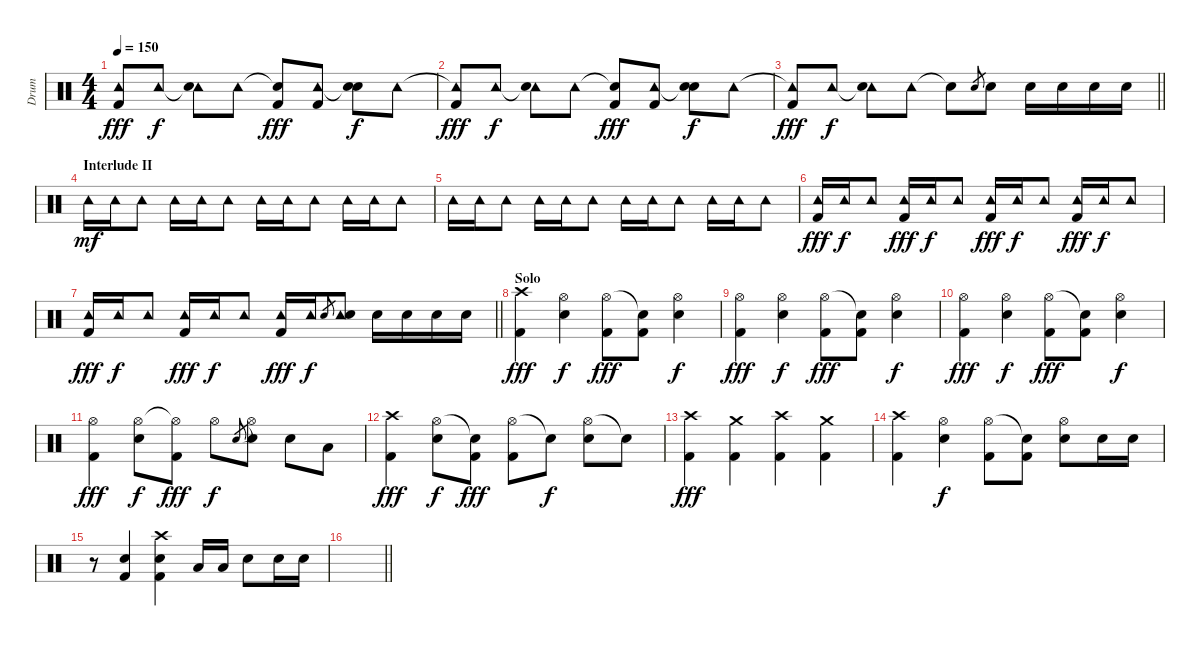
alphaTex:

\track ("Drum" "Drum") {instrument percussion}
\staff {score}
\articulation defaults
\ts (4 4)
\tempo 150
\clef neutral
\ks c
("Tambourine (hit)"{t} "Kick (hit) 2").8{dy fff} "Tambourine (hit)".8{dy f} ("Tambourine (hit)"{t} "Snare (hit) 2").8 "Tambourine (hit)".8 ("Snare (hit)"{t} "Kick (hit) 2").8{dy fff} ("Tambourine (hit)" "Kick (hit) 2").8 ("Snare (hit)"{t} "Snare (hit) 2").8{dy f} "Tambourine (hit)".8 |
("Tambourine (hit)"{t} "Kick (hit) 2").8{dy fff} "Tambourine (hit)".8{dy f} ("Tambourine (hit)"{t} "Snare (hit) 2").8 "Tambourine (hit)".8 ("Snare (hit)"{t} "Kick (hit) 2").8{dy fff} ("Tambourine (hit)" "Kick (hit) 2").8 ("Snare (hit)"{t} "Snare (hit) 2").8{dy f} "Tambourine (hit)".8 |
\barLineRight lightlight
("Tambourine (hit)"{t} "Kick (hit) 2").8{dy fff} "Tambourine (hit)".8{dy f} ("Tambourine (hit)"{t} "Snare (hit) 2").8 "Tambourine (hit)".8 "Snare (hit)"{t}.8 "Snare (hit) 2".8{gr} "Snare (hit) 2".8 "Snare (hit) 2".16 "Snare (hit) 2".16 "Snare (hit) 2".16 "Snare (hit) 2".16 |
\section ("" "Interlude II")
"Tambourine (hit)".16{dy mf} "Tambourine (hit)".16 "Tambourine (hit)".8 "Tambourine (hit)".16 "Tambourine (hit)".16 "Tambourine (hit)".8 "Tambourine (hit)".16 "Tambourine (hit)".16 "Tambourine (hit)".8 "Tambourine (hit)".16 "Tambourine (hit)".16 "Tambourine (hit)".8 |
"Tambourine (hit)".16 "Tambourine (hit)".16 "Tambourine (hit)".8 "Tambourine (hit)".16 "Tambourine (hit)".16 "Tambourine (hit)".8 "Tambourine (hit)".16 "Tambourine (hit)".16 "Tambourine (hit)".8 "Tambourine (hit)".16 "Tambourine (hit)".16 "Tambourine (hit)".8 |
("Tambourine (hit)" "Kick (hit) 2").16{dy fff} "Tambourine (hit)".16{dy f} "Tambourine (hit)".8 ("Tambourine (hit)" "Kick (hit) 2").16{dy fff} "Tambourine (hit)".16{dy f} "Tambourine (hit)".8 ("Tambourine (hit)" "Kick (hit) 2").16{dy fff} "Tambourine (hit)".16{dy f} "Tambourine (hit)".8 ("Tambourine (hit)" "Kick (hit) 2").16{dy fff} "Tambourine (hit)".16{dy f} "Tambourine (hit)".8 |
\barLineRight lightlight
("Tambourine (hit)" "Kick (hit) 2").16{dy fff} "Tambourine (hit)".16{dy f} "Tambourine (hit)".8 ("Tambourine (hit)" "Kick (hit) 2").16{dy fff} "Tambourine (hit)".16{dy f} "Tambourine (hit)".8 ("Tambourine (hit)" "Kick (hit) 2").16{dy fff} "Tambourine (hit)".16{dy f} "Snare (hit) 2".8{gr} ("Tambourine (hit)" "Snare (hit) 2").8 "Snare (hit) 2".16 "Snare (hit) 2".16 "Snare (hit) 2".16 "Snare (hit) 2".16 |
\section ("" "Solo")
("Crash high (hit)" "Kick (hit) 2").4{dy fff} ("Hi-Hat (open)" "Snare (hit) 2").4{dy f} ("Hi-Hat (open)" "Kick (hit) 2").8{dy fff} ("Snare (hit)"{t} "Kick (hit) 2").8 ("Hi-Hat (open)" "Snare (hit) 2").4{dy f} |
("Hi-Hat (open)" "Kick (hit) 2").4{dy fff} ("Hi-Hat (open)" "Snare (hit) 2").4{dy f} ("Hi-Hat (open)" "Kick (hit) 2").8{dy fff} ("Snare (hit)"{t} "Kick (hit) 2").8 ("Hi-Hat (open)" "Snare (hit) 2").4{dy f} |
("Hi-Hat (open)" "Kick (hit) 2").4{dy fff} ("Hi-Hat (open)" "Snare (hit) 2").4{dy f} ("Hi-Hat (open)" "Kick (hit) 2").8{dy fff} ("Snare (hit)"{t} "Kick (hit) 2").8 ("Hi-Hat (open)" "Snare (hit) 2").4{dy f} |
("Hi-Hat (open)" "Kick (hit) 2").4{dy fff} ("Hi-Hat (open)" "Snare (hit) 2").8{dy f} ("Hi-Hat (open)"{t} "Kick (hit) 2").8{dy fff} "Hi-Hat (open)".8{dy f} "Snare (hit) 2".8{gr} ("Hi-Hat (open)"{t} "Snare (hit) 2").8 "Snare (hit) 2".8 "Low Tom (hit)".8 |
("Crash high (hit)" "Kick (hit) 2").4{dy fff} ("Hi-Hat (open)" "Snare (hit) 2").8{dy f} ("Snare (hit)"{t} "Kick (hit) 2").8{dy fff} ("Hi-Hat (open)" "Kick (hit) 2").8 "Snare (hit)"{t}.8{dy f} ("Hi-Hat (open)" "Snare (hit) 2").8 "Snare (hit)"{t}.8 |
("Crash high (hit)" "Kick (hit) 2").4{dy fff} ("Crash medium (hit)" "Kick (hit) 2").4 ("Crash high (hit)" "Kick (hit) 2").4 ("Crash medium (hit)" "Kick (hit) 2").4 |
("Crash high (hit)" "Kick (hit) 2").4 ("Hi-Hat (open)" "Snare (hit) 2").4{dy f} ("Hi-Hat (open)" "Kick (hit) 2").8 ("Snare (hit)"{t} "Kick (hit) 2").8 ("Hi-Hat (open)" "Snare (hit) 2").8 "Snare (hit) 2".16 "Snare (hit) 2".16 |
r.8 ("Snare (hit) 2" "Kick (hit) 2").4 ("Crash high (hit)" "Snare (hit) 2" "Kick (hit) 2").4 "Low Tom (hit)".16 "Low Tom (hit)".16 "Snare (hit) 2".8 "Snare (hit) 2".16 "Snare (hit) 2".16 |
\barLineRight lightlight
